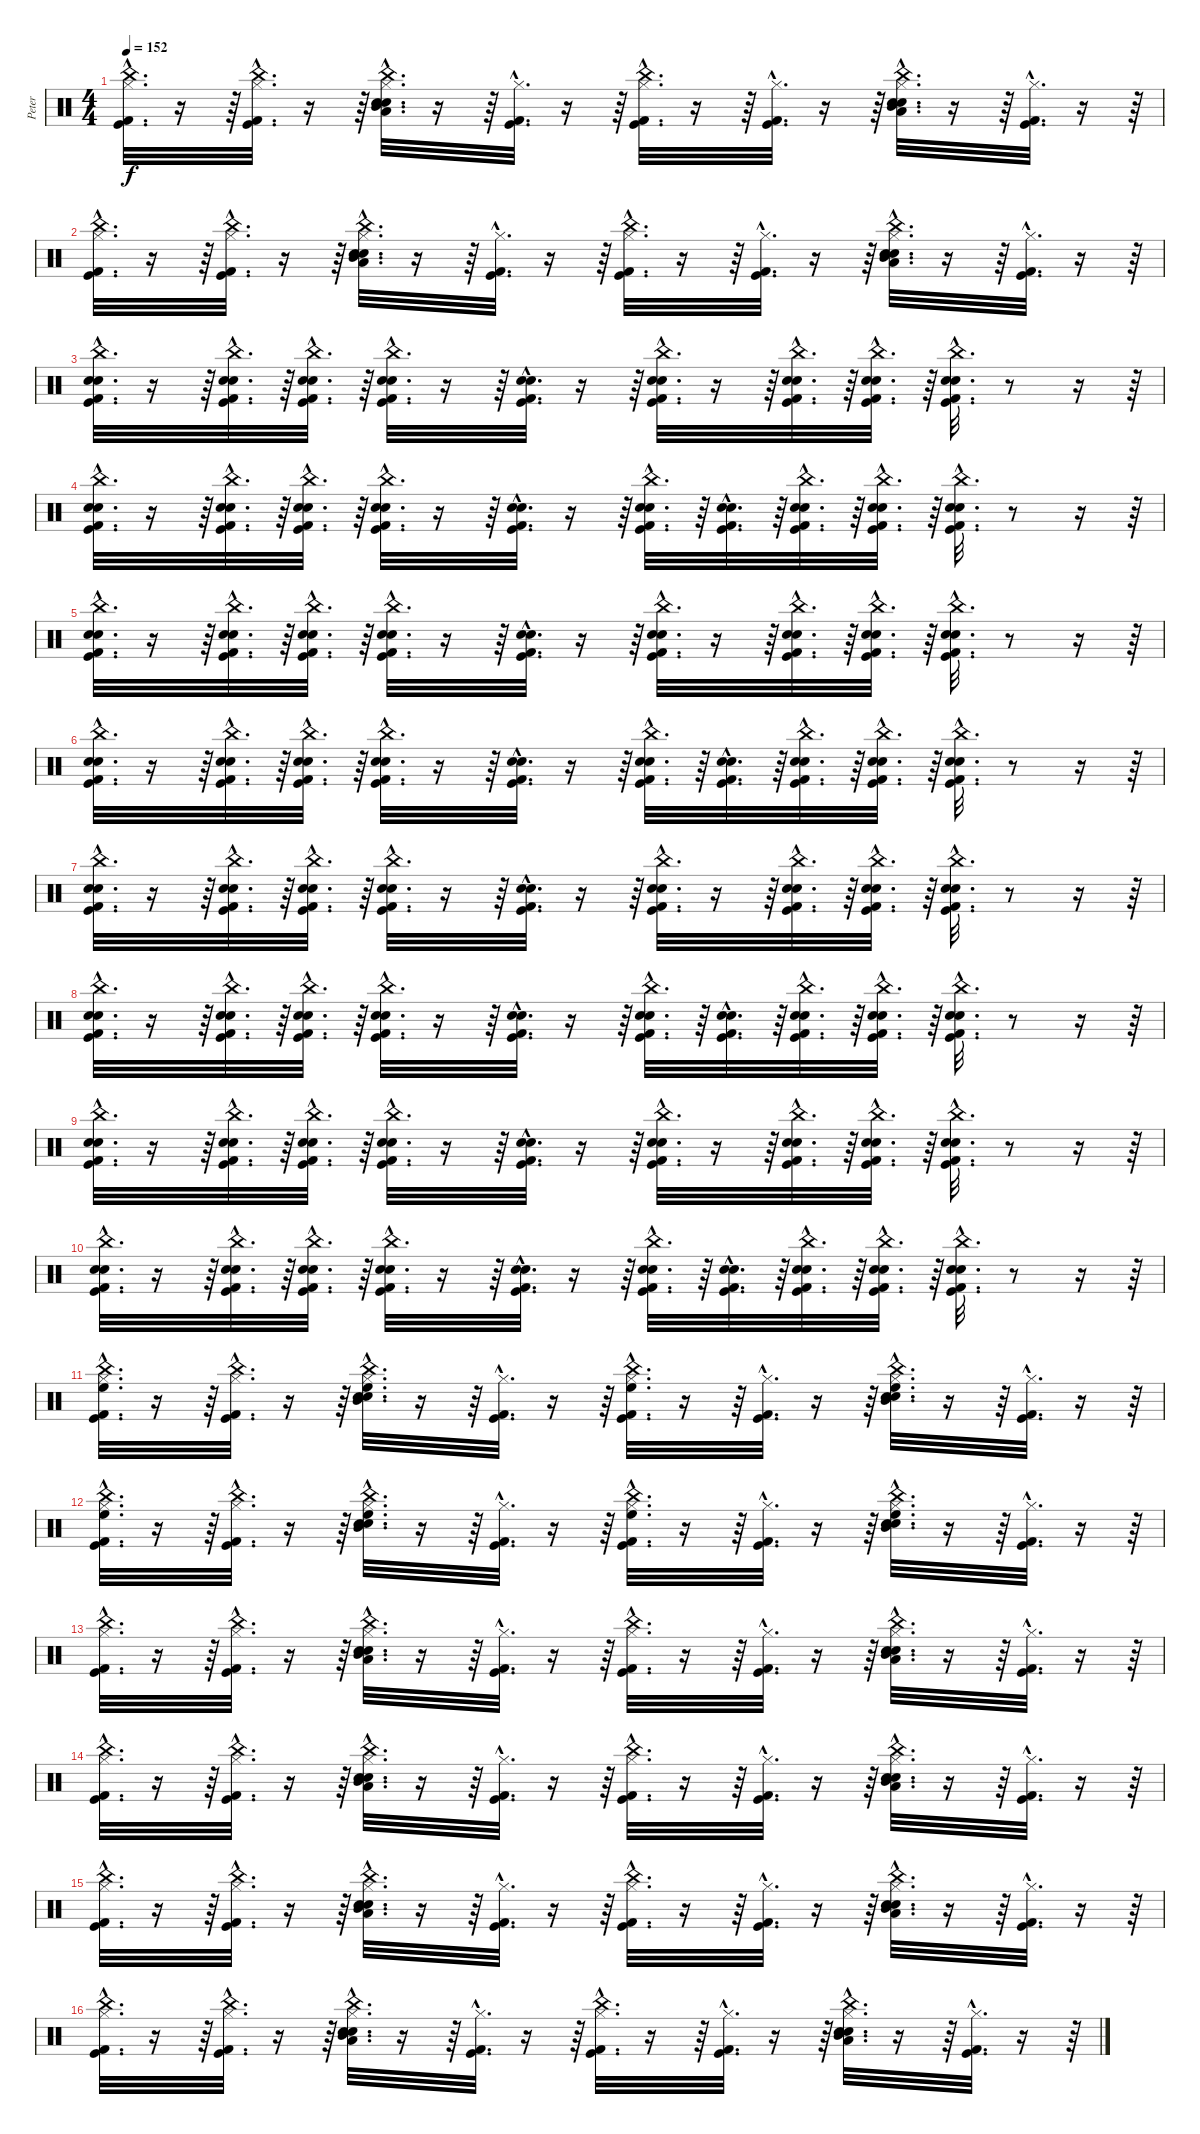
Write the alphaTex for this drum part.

\track ("Peter" "Peter") {instrument percussion}
\staff {score}
\articulation defaults
\ts (4 4)
\tempo 152
\clef neutral
\ks c
("China (hit)"{hac} "Kick (hit) 2"{hac} "Kick (hit)"{hac} "Hi-Hat (closed)"{hac}).32{d dy f} r.16 r.64 ("Kick (hit)"{hac} "Kick (hit) 2"{hac} "China (hit)"{hac} "Hi-Hat (closed)"{hac}).32{d} r.16 r.64 ("China (hit)"{hac} "Electric Snare (hit)"{hac} "Snare (hit) 2"{hac} "Hi-Hat (closed)"{hac} "Mid Tom (hit)"{hac} "Low Tom (hit)"{hac}).32{d} r.16 r.64 ("Kick (hit) 2"{hac} "Kick (hit)"{hac} "Hi-Hat (closed)"{hac}).32{d} r.16 r.64 ("China (hit)"{hac} "Kick (hit)"{hac} "Kick (hit) 2"{hac} "Hi-Hat (closed)"{hac}).32{d} r.16 r.64 ("Kick (hit) 2"{hac} "Kick (hit)"{hac} "Hi-Hat (closed)"{hac}).32{d} r.16 r.64 ("China (hit)"{hac} "Electric Snare (hit)"{hac} "Snare (hit) 2"{hac} "Hi-Hat (closed)"{hac} "Mid Tom (hit)"{hac} "Low Tom (hit)"{hac}).32{d} r.16 r.64 ("Kick (hit) 2"{hac} "Kick (hit)"{hac} "Hi-Hat (closed)"{hac}).32{d} r.16 r.64 |
("China (hit)"{hac} "Kick (hit) 2"{hac} "Kick (hit)"{hac} "Hi-Hat (closed)"{hac}).32{d} r.16 r.64 ("Kick (hit)"{hac} "Kick (hit) 2"{hac} "China (hit)"{hac} "Hi-Hat (closed)"{hac}).32{d} r.16 r.64 ("China (hit)"{hac} "Electric Snare (hit)"{hac} "Snare (hit) 2"{hac} "Hi-Hat (closed)"{hac} "Mid Tom (hit)"{hac} "Low Tom (hit)"{hac}).32{d} r.16 r.64 ("Kick (hit) 2"{hac} "Kick (hit)"{hac} "Hi-Hat (closed)"{hac}).32{d} r.16 r.64 ("China (hit)"{hac} "Kick (hit)"{hac} "Kick (hit) 2"{hac} "Hi-Hat (closed)"{hac}).32{d} r.16 r.64 ("Kick (hit) 2"{hac} "Kick (hit)"{hac} "Hi-Hat (closed)"{hac}).32{d} r.16 r.64 ("China (hit)"{hac} "Electric Snare (hit)"{hac} "Snare (hit) 2"{hac} "Hi-Hat (closed)"{hac} "Mid Tom (hit)"{hac} "Low Tom (hit)"{hac}).32{d} r.16 r.64 ("Kick (hit) 2"{hac} "Kick (hit)"{hac} "Hi-Hat (closed)"{hac}).32{d} r.16 r.64 |
("Electric Snare (hit)"{hac} "Snare (hit) 2"{hac} "Kick (hit) 2"{hac} "Kick (hit)"{hac} "China (hit)"{hac}).32{d} r.16 r.64 ("Electric Snare (hit)"{hac} "Snare (hit) 2"{hac} "Kick (hit) 2"{hac} "Kick (hit)"{hac} "China (hit)"{hac}).32{d} r.64 ("Electric Snare (hit)"{hac} "Snare (hit) 2"{hac} "Kick (hit) 2"{hac} "Kick (hit)"{hac} "China (hit)"{hac}).32{d} r.64 ("Electric Snare (hit)"{hac} "Snare (hit) 2"{hac} "Kick (hit) 2"{hac} "Kick (hit)"{hac} "China (hit)"{hac}).32{d} r.16 r.64 ("Electric Snare (hit)"{hac} "Snare (hit) 2"{hac} "Kick (hit) 2"{hac} "Kick (hit)"{hac}).32{d} r.16 r.64 ("Electric Snare (hit)"{hac} "Snare (hit) 2"{hac} "Kick (hit) 2"{hac} "Kick (hit)"{hac} "China (hit)"{hac}).32{d} r.16 r.64 ("Electric Snare (hit)"{hac} "Snare (hit) 2"{hac} "Kick (hit) 2"{hac} "Kick (hit)"{hac} "China (hit)"{hac}).32{d} r.64 ("Electric Snare (hit)"{hac} "Snare (hit) 2"{hac} "Kick (hit) 2"{hac} "Kick (hit)"{hac} "China (hit)"{hac}).32{d} r.64 ("Electric Snare (hit)"{hac} "Snare (hit) 2"{hac} "Kick (hit) 2"{hac} "Kick (hit)"{hac} "China (hit)"{hac}).32{d} r.8 r.16 r.64 |
("Electric Snare (hit)"{hac} "Snare (hit) 2"{hac} "Kick (hit) 2"{hac} "Kick (hit)"{hac} "China (hit)"{hac}).32{d} r.16 r.64 ("Electric Snare (hit)"{hac} "Snare (hit) 2"{hac} "Kick (hit) 2"{hac} "Kick (hit)"{hac} "China (hit)"{hac}).32{d} r.64 ("Electric Snare (hit)"{hac} "Snare (hit) 2"{hac} "Kick (hit) 2"{hac} "Kick (hit)"{hac} "China (hit)"{hac}).32{d} r.64 ("Electric Snare (hit)"{hac} "Snare (hit) 2"{hac} "Kick (hit) 2"{hac} "Kick (hit)"{hac} "China (hit)"{hac}).32{d} r.16 r.64 ("Snare (hit) 2"{hac} "Electric Snare (hit)"{hac} "Kick (hit) 2"{hac} "Kick (hit)"{hac}).32{d} r.16 r.64 ("Electric Snare (hit)"{hac} "Snare (hit) 2"{hac} "Kick (hit) 2"{hac} "Kick (hit)"{hac} "China (hit)"{hac}).32{d} r.64 ("Electric Snare (hit)"{hac} "Snare (hit) 2"{hac} "Kick (hit) 2"{hac} "Kick (hit)"{hac}).32{d} r.64 ("Electric Snare (hit)"{hac} "Snare (hit) 2"{hac} "Kick (hit) 2"{hac} "Kick (hit)"{hac} "China (hit)"{hac}).32{d} r.64 ("Electric Snare (hit)"{hac} "Snare (hit) 2"{hac} "Kick (hit) 2"{hac} "Kick (hit)"{hac} "China (hit)"{hac}).32{d} r.64 ("Electric Snare (hit)"{hac} "Snare (hit) 2"{hac} "Kick (hit) 2"{hac} "Kick (hit)"{hac} "China (hit)"{hac}).32{d} r.8 r.16 r.64 |
("Electric Snare (hit)"{hac} "Snare (hit) 2"{hac} "Kick (hit) 2"{hac} "Kick (hit)"{hac} "China (hit)"{hac}).32{d} r.16 r.64 ("Electric Snare (hit)"{hac} "Snare (hit) 2"{hac} "Kick (hit) 2"{hac} "Kick (hit)"{hac} "China (hit)"{hac}).32{d} r.64 ("Electric Snare (hit)"{hac} "Snare (hit) 2"{hac} "Kick (hit) 2"{hac} "Kick (hit)"{hac} "China (hit)"{hac}).32{d} r.64 ("Electric Snare (hit)"{hac} "Snare (hit) 2"{hac} "Kick (hit) 2"{hac} "Kick (hit)"{hac} "China (hit)"{hac}).32{d} r.16 r.64 ("Electric Snare (hit)"{hac} "Snare (hit) 2"{hac} "Kick (hit) 2"{hac} "Kick (hit)"{hac}).32{d} r.16 r.64 ("Electric Snare (hit)"{hac} "Snare (hit) 2"{hac} "Kick (hit) 2"{hac} "Kick (hit)"{hac} "China (hit)"{hac}).32{d} r.16 r.64 ("Electric Snare (hit)"{hac} "Snare (hit) 2"{hac} "Kick (hit) 2"{hac} "Kick (hit)"{hac} "China (hit)"{hac}).32{d} r.64 ("Electric Snare (hit)"{hac} "Snare (hit) 2"{hac} "Kick (hit) 2"{hac} "Kick (hit)"{hac} "China (hit)"{hac}).32{d} r.64 ("Electric Snare (hit)"{hac} "Snare (hit) 2"{hac} "Kick (hit) 2"{hac} "Kick (hit)"{hac} "China (hit)"{hac}).32{d} r.8 r.16 r.64 |
("Electric Snare (hit)"{hac} "Snare (hit) 2"{hac} "Kick (hit) 2"{hac} "Kick (hit)"{hac} "China (hit)"{hac}).32{d} r.16 r.64 ("Electric Snare (hit)"{hac} "Snare (hit) 2"{hac} "Kick (hit) 2"{hac} "Kick (hit)"{hac} "China (hit)"{hac}).32{d} r.64 ("Electric Snare (hit)"{hac} "Snare (hit) 2"{hac} "Kick (hit) 2"{hac} "Kick (hit)"{hac} "China (hit)"{hac}).32{d} r.64 ("Electric Snare (hit)"{hac} "Snare (hit) 2"{hac} "Kick (hit) 2"{hac} "Kick (hit)"{hac} "China (hit)"{hac}).32{d} r.16 r.64 ("Electric Snare (hit)"{hac} "Kick (hit) 2"{hac} "Kick (hit)"{hac} "Snare (hit) 2"{hac}).32{d} r.16 r.64 ("Electric Snare (hit)"{hac} "Snare (hit) 2"{hac} "Kick (hit) 2"{hac} "Kick (hit)"{hac} "China (hit)"{hac}).32{d} r.64 ("Electric Snare (hit)"{hac} "Snare (hit) 2"{hac} "Kick (hit) 2"{hac} "Kick (hit)"{hac}).32{d} r.64 ("Electric Snare (hit)"{hac} "Snare (hit) 2"{hac} "Kick (hit) 2"{hac} "Kick (hit)"{hac} "China (hit)"{hac}).32{d} r.64 ("Electric Snare (hit)"{hac} "Snare (hit) 2"{hac} "Kick (hit) 2"{hac} "Kick (hit)"{hac} "China (hit)"{hac}).32{d} r.64 ("Electric Snare (hit)"{hac} "Snare (hit) 2"{hac} "Kick (hit) 2"{hac} "Kick (hit)"{hac} "China (hit)"{hac}).32{d} r.8 r.16 r.64 |
("Electric Snare (hit)"{hac} "Snare (hit) 2"{hac} "Kick (hit) 2"{hac} "Kick (hit)"{hac} "China (hit)"{hac}).32{d} r.16 r.64 ("Electric Snare (hit)"{hac} "Snare (hit) 2"{hac} "Kick (hit) 2"{hac} "Kick (hit)"{hac} "China (hit)"{hac}).32{d} r.64 ("Electric Snare (hit)"{hac} "Snare (hit) 2"{hac} "Kick (hit) 2"{hac} "Kick (hit)"{hac} "China (hit)"{hac}).32{d} r.64 ("Electric Snare (hit)"{hac} "Snare (hit) 2"{hac} "Kick (hit) 2"{hac} "Kick (hit)"{hac} "China (hit)"{hac}).32{d} r.16 r.64 ("Electric Snare (hit)"{hac} "Snare (hit) 2"{hac} "Kick (hit) 2"{hac} "Kick (hit)"{hac}).32{d} r.16 r.64 ("Electric Snare (hit)"{hac} "Snare (hit) 2"{hac} "Kick (hit) 2"{hac} "Kick (hit)"{hac} "China (hit)"{hac}).32{d} r.16 r.64 ("Electric Snare (hit)"{hac} "Snare (hit) 2"{hac} "Kick (hit) 2"{hac} "Kick (hit)"{hac} "China (hit)"{hac}).32{d} r.64 ("Electric Snare (hit)"{hac} "Snare (hit) 2"{hac} "Kick (hit) 2"{hac} "Kick (hit)"{hac} "China (hit)"{hac}).32{d} r.64 ("Electric Snare (hit)"{hac} "Snare (hit) 2"{hac} "Kick (hit) 2"{hac} "Kick (hit)"{hac} "China (hit)"{hac}).32{d} r.8 r.16 r.64 |
("Electric Snare (hit)"{hac} "Snare (hit) 2"{hac} "Kick (hit) 2"{hac} "Kick (hit)"{hac} "China (hit)"{hac}).32{d} r.16 r.64 ("Electric Snare (hit)"{hac} "Snare (hit) 2"{hac} "Kick (hit) 2"{hac} "Kick (hit)"{hac} "China (hit)"{hac}).32{d} r.64 ("Electric Snare (hit)"{hac} "Snare (hit) 2"{hac} "Kick (hit) 2"{hac} "Kick (hit)"{hac} "China (hit)"{hac}).32{d} r.64 ("Electric Snare (hit)"{hac} "Snare (hit) 2"{hac} "Kick (hit) 2"{hac} "Kick (hit)"{hac} "China (hit)"{hac}).32{d} r.16 r.64 ("Snare (hit) 2"{hac} "Electric Snare (hit)"{hac} "Kick (hit) 2"{hac} "Kick (hit)"{hac}).32{d} r.16 r.64 ("Electric Snare (hit)"{hac} "Snare (hit) 2"{hac} "Kick (hit) 2"{hac} "Kick (hit)"{hac} "China (hit)"{hac}).32{d} r.64 ("Electric Snare (hit)"{hac} "Snare (hit) 2"{hac} "Kick (hit) 2"{hac} "Kick (hit)"{hac}).32{d} r.64 ("Electric Snare (hit)"{hac} "Snare (hit) 2"{hac} "Kick (hit) 2"{hac} "Kick (hit)"{hac} "China (hit)"{hac}).32{d} r.64 ("Electric Snare (hit)"{hac} "Snare (hit) 2"{hac} "Kick (hit) 2"{hac} "Kick (hit)"{hac} "China (hit)"{hac}).32{d} r.64 ("Electric Snare (hit)"{hac} "Snare (hit) 2"{hac} "Kick (hit) 2"{hac} "Kick (hit)"{hac} "China (hit)"{hac}).32{d} r.8 r.16 r.64 |
("Electric Snare (hit)"{hac} "Snare (hit) 2"{hac} "Kick (hit) 2"{hac} "Kick (hit)"{hac} "China (hit)"{hac}).32{d} r.16 r.64 ("Electric Snare (hit)"{hac} "Snare (hit) 2"{hac} "Kick (hit) 2"{hac} "Kick (hit)"{hac} "China (hit)"{hac}).32{d} r.64 ("Electric Snare (hit)"{hac} "Snare (hit) 2"{hac} "Kick (hit) 2"{hac} "Kick (hit)"{hac} "China (hit)"{hac}).32{d} r.64 ("Electric Snare (hit)"{hac} "Snare (hit) 2"{hac} "Kick (hit) 2"{hac} "Kick (hit)"{hac} "China (hit)"{hac}).32{d} r.16 r.64 ("Electric Snare (hit)"{hac} "Snare (hit) 2"{hac} "Kick (hit) 2"{hac} "Kick (hit)"{hac}).32{d} r.16 r.64 ("Electric Snare (hit)"{hac} "Snare (hit) 2"{hac} "Kick (hit) 2"{hac} "Kick (hit)"{hac} "China (hit)"{hac}).32{d} r.16 r.64 ("Electric Snare (hit)"{hac} "Snare (hit) 2"{hac} "Kick (hit) 2"{hac} "Kick (hit)"{hac} "China (hit)"{hac}).32{d} r.64 ("Electric Snare (hit)"{hac} "Snare (hit) 2"{hac} "Kick (hit) 2"{hac} "Kick (hit)"{hac} "China (hit)"{hac}).32{d} r.64 ("Electric Snare (hit)"{hac} "Snare (hit) 2"{hac} "Kick (hit) 2"{hac} "Kick (hit)"{hac} "China (hit)"{hac}).32{d} r.8 r.16 r.64 |
("Electric Snare (hit)"{hac} "Snare (hit) 2"{hac} "Kick (hit) 2"{hac} "Kick (hit)"{hac} "China (hit)"{hac}).32{d} r.16 r.64 ("Electric Snare (hit)"{hac} "Snare (hit) 2"{hac} "Kick (hit) 2"{hac} "Kick (hit)"{hac} "China (hit)"{hac}).32{d} r.64 ("Electric Snare (hit)"{hac} "Snare (hit) 2"{hac} "Kick (hit) 2"{hac} "Kick (hit)"{hac} "China (hit)"{hac}).32{d} r.64 ("Electric Snare (hit)"{hac} "Snare (hit) 2"{hac} "Kick (hit) 2"{hac} "Kick (hit)"{hac} "China (hit)"{hac}).32{d} r.16 r.64 ("Electric Snare (hit)"{hac} "Kick (hit) 2"{hac} "Kick (hit)"{hac} "Snare (hit) 2"{hac}).32{d} r.16 r.64 ("Electric Snare (hit)"{hac} "Snare (hit) 2"{hac} "Kick (hit) 2"{hac} "Kick (hit)"{hac} "China (hit)"{hac}).32{d} r.64 ("Electric Snare (hit)"{hac} "Snare (hit) 2"{hac} "Kick (hit) 2"{hac} "Kick (hit)"{hac}).32{d} r.64 ("Electric Snare (hit)"{hac} "Snare (hit) 2"{hac} "Kick (hit) 2"{hac} "Kick (hit)"{hac} "China (hit)"{hac}).32{d} r.64 ("Electric Snare (hit)"{hac} "Snare (hit) 2"{hac} "Kick (hit) 2"{hac} "Kick (hit)"{hac} "China (hit)"{hac}).32{d} r.64 ("Electric Snare (hit)"{hac} "Snare (hit) 2"{hac} "Kick (hit) 2"{hac} "Kick (hit)"{hac} "China (hit)"{hac}).32{d} r.8 r.16 r.64 |
("China (hit)"{hac} "Kick (hit) 2"{hac} "Kick (hit)"{hac} "Hi-Hat (closed)"{hac} "High Floor Tom (hit)"{hac}).32{d} r.16 r.64 ("Kick (hit)"{hac} "Kick (hit) 2"{hac} "China (hit)"{hac} "Hi-Hat (closed)"{hac}).32{d} r.16 r.64 ("China (hit)"{hac} "Electric Snare (hit)"{hac} "Snare (hit) 2"{hac} "Hi-Hat (closed)"{hac} "Mid Tom (hit)"{hac} "High Floor Tom (hit)"{hac}).32{d} r.16 r.64 ("Kick (hit) 2"{hac} "Kick (hit)"{hac} "Hi-Hat (closed)"{hac}).32{d} r.16 r.64 ("China (hit)"{hac} "Kick (hit)"{hac} "Kick (hit) 2"{hac} "Hi-Hat (closed)"{hac} "High Floor Tom (hit)"{hac}).32{d} r.16 r.64 ("Kick (hit) 2"{hac} "Kick (hit)"{hac} "Hi-Hat (closed)"{hac}).32{d} r.16 r.64 ("China (hit)"{hac} "Electric Snare (hit)"{hac} "Snare (hit) 2"{hac} "Hi-Hat (closed)"{hac} "Mid Tom (hit)"{hac} "High Floor Tom (hit)"{hac}).32{d} r.16 r.64 ("Kick (hit) 2"{hac} "Kick (hit)"{hac} "Hi-Hat (closed)"{hac}).32{d} r.16 r.64 |
("China (hit)"{hac} "Kick (hit) 2"{hac} "Kick (hit)"{hac} "Hi-Hat (closed)"{hac} "High Floor Tom (hit)"{hac}).32{d} r.16 r.64 ("Kick (hit)"{hac} "Kick (hit) 2"{hac} "China (hit)"{hac} "Hi-Hat (closed)"{hac}).32{d} r.16 r.64 ("China (hit)"{hac} "Electric Snare (hit)"{hac} "Snare (hit) 2"{hac} "Hi-Hat (closed)"{hac} "Mid Tom (hit)"{hac} "High Floor Tom (hit)"{hac}).32{d} r.16 r.64 ("Kick (hit) 2"{hac} "Kick (hit)"{hac} "Hi-Hat (closed)"{hac}).32{d} r.16 r.64 ("China (hit)"{hac} "Kick (hit)"{hac} "Kick (hit) 2"{hac} "Hi-Hat (closed)"{hac} "High Floor Tom (hit)"{hac}).32{d} r.16 r.64 ("Kick (hit) 2"{hac} "Kick (hit)"{hac} "Hi-Hat (closed)"{hac}).32{d} r.16 r.64 ("China (hit)"{hac} "Electric Snare (hit)"{hac} "Snare (hit) 2"{hac} "Hi-Hat (closed)"{hac} "Mid Tom (hit)"{hac} "High Floor Tom (hit)"{hac}).32{d} r.16 r.64 ("Kick (hit) 2"{hac} "Kick (hit)"{hac} "Hi-Hat (closed)"{hac}).32{d} r.16 r.64 |
("China (hit)"{hac} "Kick (hit) 2"{hac} "Kick (hit)"{hac} "Hi-Hat (closed)"{hac}).32{d} r.16 r.64 ("Kick (hit)"{hac} "Kick (hit) 2"{hac} "China (hit)"{hac} "Hi-Hat (closed)"{hac}).32{d} r.16 r.64 ("China (hit)"{hac} "Electric Snare (hit)"{hac} "Snare (hit) 2"{hac} "Hi-Hat (closed)"{hac} "Mid Tom (hit)"{hac} "Low Tom (hit)"{hac}).32{d} r.16 r.64 ("Kick (hit) 2"{hac} "Kick (hit)"{hac} "Hi-Hat (closed)"{hac}).32{d} r.16 r.64 ("China (hit)"{hac} "Kick (hit)"{hac} "Kick (hit) 2"{hac} "Hi-Hat (closed)"{hac}).32{d} r.16 r.64 ("Kick (hit) 2"{hac} "Kick (hit)"{hac} "Hi-Hat (closed)"{hac}).32{d} r.16 r.64 ("China (hit)"{hac} "Electric Snare (hit)"{hac} "Snare (hit) 2"{hac} "Hi-Hat (closed)"{hac} "Mid Tom (hit)"{hac} "Low Tom (hit)"{hac}).32{d} r.16 r.64 ("Kick (hit) 2"{hac} "Kick (hit)"{hac} "Hi-Hat (closed)"{hac}).32{d} r.16 r.64 |
("China (hit)"{hac} "Kick (hit) 2"{hac} "Kick (hit)"{hac} "Hi-Hat (closed)"{hac}).32{d} r.16 r.64 ("Kick (hit)"{hac} "Kick (hit) 2"{hac} "China (hit)"{hac} "Hi-Hat (closed)"{hac}).32{d} r.16 r.64 ("China (hit)"{hac} "Electric Snare (hit)"{hac} "Snare (hit) 2"{hac} "Hi-Hat (closed)"{hac} "Mid Tom (hit)"{hac} "Low Tom (hit)"{hac}).32{d} r.16 r.64 ("Kick (hit) 2"{hac} "Kick (hit)"{hac} "Hi-Hat (closed)"{hac}).32{d} r.16 r.64 ("China (hit)"{hac} "Kick (hit)"{hac} "Kick (hit) 2"{hac} "Hi-Hat (closed)"{hac}).32{d} r.16 r.64 ("Kick (hit) 2"{hac} "Kick (hit)"{hac} "Hi-Hat (closed)"{hac}).32{d} r.16 r.64 ("China (hit)"{hac} "Electric Snare (hit)"{hac} "Snare (hit) 2"{hac} "Hi-Hat (closed)"{hac} "Mid Tom (hit)"{hac} "Low Tom (hit)"{hac}).32{d} r.16 r.64 ("Kick (hit) 2"{hac} "Kick (hit)"{hac} "Hi-Hat (closed)"{hac}).32{d} r.16 r.64 |
("China (hit)"{hac} "Kick (hit) 2"{hac} "Kick (hit)"{hac} "Hi-Hat (closed)"{hac}).32{d} r.16 r.64 ("Kick (hit)"{hac} "Kick (hit) 2"{hac} "China (hit)"{hac} "Hi-Hat (closed)"{hac}).32{d} r.16 r.64 ("China (hit)"{hac} "Electric Snare (hit)"{hac} "Snare (hit) 2"{hac} "Hi-Hat (closed)"{hac} "Mid Tom (hit)"{hac} "Low Tom (hit)"{hac}).32{d} r.16 r.64 ("Kick (hit) 2"{hac} "Kick (hit)"{hac} "Hi-Hat (closed)"{hac}).32{d} r.16 r.64 ("China (hit)"{hac} "Kick (hit)"{hac} "Kick (hit) 2"{hac} "Hi-Hat (closed)"{hac}).32{d} r.16 r.64 ("Kick (hit) 2"{hac} "Kick (hit)"{hac} "Hi-Hat (closed)"{hac}).32{d} r.16 r.64 ("China (hit)"{hac} "Electric Snare (hit)"{hac} "Snare (hit) 2"{hac} "Hi-Hat (closed)"{hac} "Mid Tom (hit)"{hac} "Low Tom (hit)"{hac}).32{d} r.16 r.64 ("Kick (hit) 2"{hac} "Kick (hit)"{hac} "Hi-Hat (closed)"{hac}).32{d} r.16 r.64 |
("China (hit)"{hac} "Kick (hit) 2"{hac} "Kick (hit)"{hac} "Hi-Hat (closed)"{hac}).32{d} r.16 r.64 ("Kick (hit)"{hac} "Kick (hit) 2"{hac} "China (hit)"{hac} "Hi-Hat (closed)"{hac}).32{d} r.16 r.64 ("China (hit)"{hac} "Electric Snare (hit)"{hac} "Snare (hit) 2"{hac} "Hi-Hat (closed)"{hac} "Mid Tom (hit)"{hac} "Low Tom (hit)"{hac}).32{d} r.16 r.64 ("Kick (hit) 2"{hac} "Kick (hit)"{hac} "Hi-Hat (closed)"{hac}).32{d} r.16 r.64 ("China (hit)"{hac} "Kick (hit)"{hac} "Kick (hit) 2"{hac} "Hi-Hat (closed)"{hac}).32{d} r.16 r.64 ("Kick (hit) 2"{hac} "Kick (hit)"{hac} "Hi-Hat (closed)"{hac}).32{d} r.16 r.64 ("China (hit)"{hac} "Electric Snare (hit)"{hac} "Snare (hit) 2"{hac} "Hi-Hat (closed)"{hac} "Mid Tom (hit)"{hac} "Low Tom (hit)"{hac}).32{d} r.16 r.64 ("Kick (hit) 2"{hac} "Kick (hit)"{hac} "Hi-Hat (closed)"{hac}).32{d} r.16 r.64
